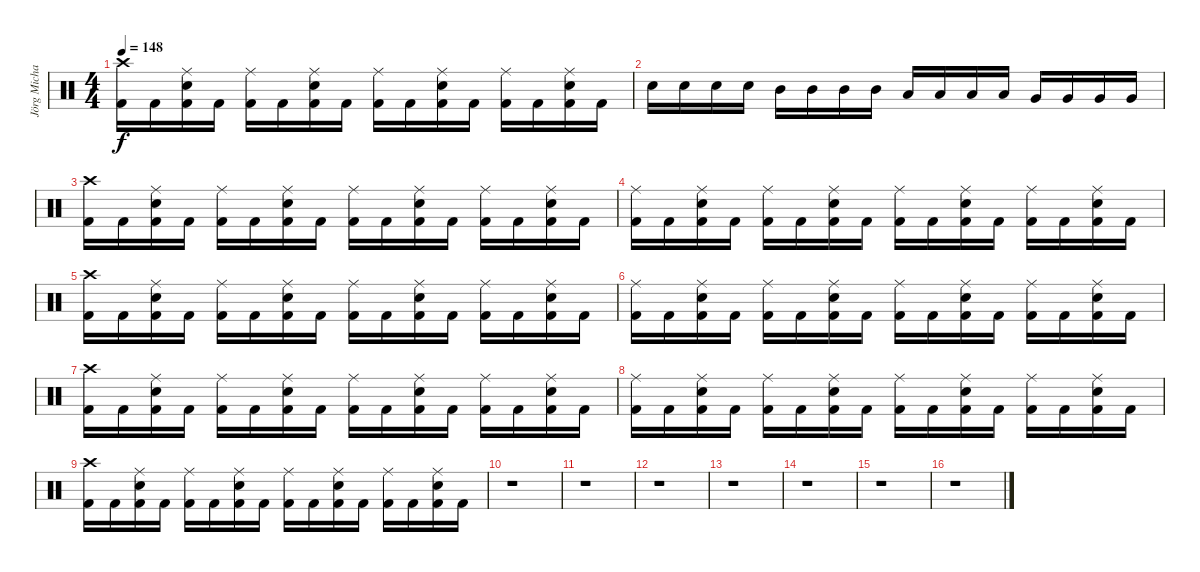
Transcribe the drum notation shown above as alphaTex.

\track ("Jörg Michael" "Jörg Micha") {instrument percussion}
\staff {score}
\articulation defaults
\ts (4 4)
\tempo 148
\clef neutral
\ks c
("Kick (hit) 2" "Crash high (hit)").16{dy f} "Kick (hit) 2".16 ("Electric Snare (hit)" "Kick (hit) 2" "Ride (middle)").16 "Kick (hit) 2".16 ("Kick (hit) 2" "Ride (middle)").16 "Kick (hit) 2".16 ("Electric Snare (hit)" "Kick (hit) 2" "Ride (middle)").16 "Kick (hit) 2".16 ("Kick (hit) 2" "Ride (middle)").16 "Kick (hit) 2".16 ("Electric Snare (hit)" "Kick (hit) 2" "Ride (middle)").16 "Kick (hit) 2".16 ("Kick (hit) 2" "Ride (middle)").16 "Kick (hit) 2".16 ("Electric Snare (hit)" "Kick (hit) 2" "Ride (middle)").16 "Kick (hit) 2".16 |
"Electric Snare (hit)".16 "Electric Snare (hit)".16 "Electric Snare (hit)".16 "Electric Snare (hit)".16 "Mid Tom (hit)".16 "Mid Tom (hit)".16 "Mid Tom (hit)".16 "Mid Tom (hit)".16 "Low Tom (hit)".16 "Low Tom (hit)".16 "Low Tom (hit)".16 "Low Tom (hit)".16 "Very Low Tom (hit)".16 "Very Low Tom (hit)".16 "Very Low Tom (hit)".16 "Very Low Tom (hit)".16 |
("Kick (hit) 2" "Crash high (hit)").16 "Kick (hit) 2".16 ("Electric Snare (hit)" "Kick (hit) 2" "Ride (middle)").16 "Kick (hit) 2".16 ("Kick (hit) 2" "Ride (middle)").16 "Kick (hit) 2".16 ("Electric Snare (hit)" "Kick (hit) 2" "Ride (middle)").16 "Kick (hit) 2".16 ("Kick (hit) 2" "Ride (middle)").16 "Kick (hit) 2".16 ("Electric Snare (hit)" "Kick (hit) 2" "Ride (middle)").16 "Kick (hit) 2".16 ("Kick (hit) 2" "Ride (middle)").16 "Kick (hit) 2".16 ("Electric Snare (hit)" "Kick (hit) 2" "Ride (middle)").16 "Kick (hit) 2".16 |
("Kick (hit) 2" "Ride (middle)").16 "Kick (hit) 2".16 ("Electric Snare (hit)" "Kick (hit) 2" "Ride (middle)").16 "Kick (hit) 2".16 ("Kick (hit) 2" "Ride (middle)").16 "Kick (hit) 2".16 ("Electric Snare (hit)" "Kick (hit) 2" "Ride (middle)").16 "Kick (hit) 2".16 ("Kick (hit) 2" "Ride (middle)").16 "Kick (hit) 2".16 ("Electric Snare (hit)" "Kick (hit) 2" "Ride (middle)").16 "Kick (hit) 2".16 ("Kick (hit) 2" "Ride (middle)").16 "Kick (hit) 2".16 ("Electric Snare (hit)" "Kick (hit) 2" "Ride (middle)").16 "Kick (hit) 2".16 |
("Kick (hit) 2" "Crash high (hit)").16 "Kick (hit) 2".16 ("Electric Snare (hit)" "Kick (hit) 2" "Ride (middle)").16 "Kick (hit) 2".16 ("Kick (hit) 2" "Ride (middle)").16 "Kick (hit) 2".16 ("Electric Snare (hit)" "Kick (hit) 2" "Ride (middle)").16 "Kick (hit) 2".16 ("Kick (hit) 2" "Ride (middle)").16 "Kick (hit) 2".16 ("Electric Snare (hit)" "Kick (hit) 2" "Ride (middle)").16 "Kick (hit) 2".16 ("Kick (hit) 2" "Ride (middle)").16 "Kick (hit) 2".16 ("Electric Snare (hit)" "Kick (hit) 2" "Ride (middle)").16 "Kick (hit) 2".16 |
("Kick (hit) 2" "Ride (middle)").16 "Kick (hit) 2".16 ("Electric Snare (hit)" "Kick (hit) 2" "Ride (middle)").16 "Kick (hit) 2".16 ("Kick (hit) 2" "Ride (middle)").16 "Kick (hit) 2".16 ("Electric Snare (hit)" "Kick (hit) 2" "Ride (middle)").16 "Kick (hit) 2".16 ("Kick (hit) 2" "Ride (middle)").16 "Kick (hit) 2".16 ("Electric Snare (hit)" "Kick (hit) 2" "Ride (middle)").16 "Kick (hit) 2".16 ("Kick (hit) 2" "Ride (middle)").16 "Kick (hit) 2".16 ("Electric Snare (hit)" "Kick (hit) 2" "Ride (middle)").16 "Kick (hit) 2".16 |
("Kick (hit) 2" "Crash high (hit)").16 "Kick (hit) 2".16 ("Electric Snare (hit)" "Kick (hit) 2" "Ride (middle)").16 "Kick (hit) 2".16 ("Kick (hit) 2" "Ride (middle)").16 "Kick (hit) 2".16 ("Electric Snare (hit)" "Kick (hit) 2" "Ride (middle)").16 "Kick (hit) 2".16 ("Kick (hit) 2" "Ride (middle)").16 "Kick (hit) 2".16 ("Electric Snare (hit)" "Kick (hit) 2" "Ride (middle)").16 "Kick (hit) 2".16 ("Kick (hit) 2" "Ride (middle)").16 "Kick (hit) 2".16 ("Electric Snare (hit)" "Kick (hit) 2" "Ride (middle)").16 "Kick (hit) 2".16 |
("Kick (hit) 2" "Ride (middle)").16 "Kick (hit) 2".16 ("Electric Snare (hit)" "Kick (hit) 2" "Ride (middle)").16 "Kick (hit) 2".16 ("Kick (hit) 2" "Ride (middle)").16 "Kick (hit) 2".16 ("Electric Snare (hit)" "Kick (hit) 2" "Ride (middle)").16 "Kick (hit) 2".16 ("Kick (hit) 2" "Ride (middle)").16 "Kick (hit) 2".16 ("Electric Snare (hit)" "Kick (hit) 2" "Ride (middle)").16 "Kick (hit) 2".16 ("Kick (hit) 2" "Ride (middle)").16 "Kick (hit) 2".16 ("Electric Snare (hit)" "Kick (hit) 2" "Ride (middle)").16 "Kick (hit) 2".16 |
("Kick (hit) 2" "Crash high (hit)").16 "Kick (hit) 2".16 ("Electric Snare (hit)" "Kick (hit) 2" "Ride (middle)").16 "Kick (hit) 2".16 ("Kick (hit) 2" "Ride (middle)").16 "Kick (hit) 2".16 ("Electric Snare (hit)" "Kick (hit) 2" "Ride (middle)").16 "Kick (hit) 2".16 ("Kick (hit) 2" "Ride (middle)").16 "Kick (hit) 2".16 ("Electric Snare (hit)" "Kick (hit) 2" "Ride (middle)").16 "Kick (hit) 2".16 ("Kick (hit) 2" "Ride (middle)").16 "Kick (hit) 2".16 ("Electric Snare (hit)" "Kick (hit) 2" "Ride (middle)").16 "Kick (hit) 2".16 |
r.1 |
r.1 |
r.1 |
r.1 |
r.1 |
r.1 |
r.1
